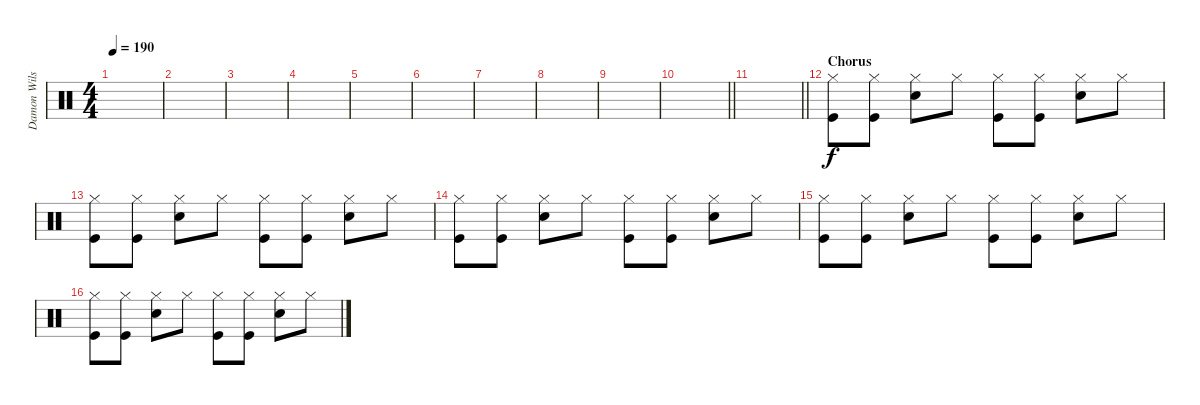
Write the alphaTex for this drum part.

\track ("Damon Wilson" "Damon Wils") {instrument percussion}
\staff {score}
\articulation defaults
\ts (4 4)
\tempo 190
\clef neutral
\ks c
|
|
|
|
|
|
|
|
|
\barLineRight lightlight
|
\barLineRight lightlight
|
\section ("" "Chorus")
("Hi-Hat (closed)" "Kick (hit)").8 ("Hi-Hat (closed)" "Kick (hit)").8 ("Hi-Hat (closed)" "Snare (hit) 2").8 "Hi-Hat (closed)".8 ("Hi-Hat (closed)" "Kick (hit)").8 ("Hi-Hat (closed)" "Kick (hit)").8 ("Hi-Hat (closed)" "Snare (hit) 2").8 "Hi-Hat (closed)".8 |
("Hi-Hat (closed)" "Kick (hit)").8 ("Hi-Hat (closed)" "Kick (hit)").8 ("Hi-Hat (closed)" "Snare (hit) 2").8 "Hi-Hat (closed)".8 ("Hi-Hat (closed)" "Kick (hit)").8 ("Hi-Hat (closed)" "Kick (hit)").8 ("Hi-Hat (closed)" "Snare (hit) 2").8 "Hi-Hat (closed)".8 |
("Hi-Hat (closed)" "Kick (hit)").8 ("Hi-Hat (closed)" "Kick (hit)").8 ("Hi-Hat (closed)" "Snare (hit) 2").8 "Hi-Hat (closed)".8 ("Hi-Hat (closed)" "Kick (hit)").8 ("Hi-Hat (closed)" "Kick (hit)").8 ("Hi-Hat (closed)" "Snare (hit) 2").8 "Hi-Hat (closed)".8 |
("Hi-Hat (closed)" "Kick (hit)").8 ("Hi-Hat (closed)" "Kick (hit)").8 ("Hi-Hat (closed)" "Snare (hit) 2").8 "Hi-Hat (closed)".8 ("Hi-Hat (closed)" "Kick (hit)").8 ("Hi-Hat (closed)" "Kick (hit)").8 ("Hi-Hat (closed)" "Snare (hit) 2").8 "Hi-Hat (closed)".8 |
("Hi-Hat (closed)" "Kick (hit)").8 ("Hi-Hat (closed)" "Kick (hit)").8 ("Hi-Hat (closed)" "Snare (hit) 2").8 "Hi-Hat (closed)".8 ("Hi-Hat (closed)" "Kick (hit)").8 ("Hi-Hat (closed)" "Kick (hit)").8 ("Hi-Hat (closed)" "Snare (hit) 2").8 "Hi-Hat (closed)".8
